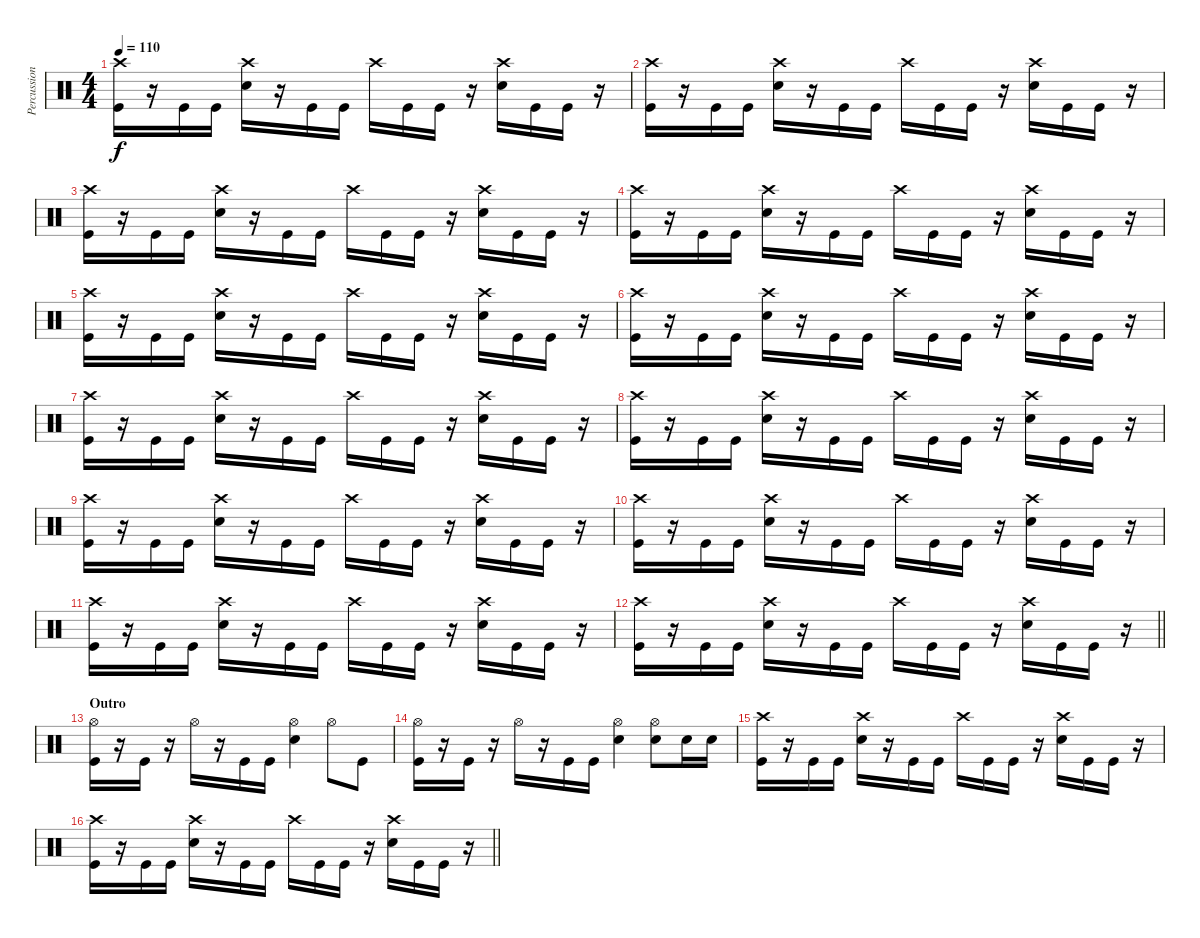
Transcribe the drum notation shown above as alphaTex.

\track ("Percussion" "Percussion") {instrument percussion}
\staff {score}
\articulation defaults
\ts (4 4)
\tempo 110
\clef neutral
\ks c
("Crash high (hit)" "Kick (hit)").16{dy f} r.16 "Kick (hit)".16 "Kick (hit)".16 ("Crash high (hit)" "Snare (hit) 2").16 r.16 "Kick (hit)".16 "Kick (hit)".16 "Crash high (hit)".16 "Kick (hit)".16 "Kick (hit)".16 r.16 ("Crash high (hit)" "Snare (hit) 2").16 "Kick (hit)".16 "Kick (hit)".16 r.16 |
("Crash high (hit)" "Kick (hit)").16 r.16 "Kick (hit)".16 "Kick (hit)".16 ("Crash high (hit)" "Snare (hit) 2").16 r.16 "Kick (hit)".16 "Kick (hit)".16 "Crash high (hit)".16 "Kick (hit)".16 "Kick (hit)".16 r.16 ("Crash high (hit)" "Snare (hit) 2").16 "Kick (hit)".16 "Kick (hit)".16 r.16 |
("Crash high (hit)" "Kick (hit)").16 r.16 "Kick (hit)".16 "Kick (hit)".16 ("Crash high (hit)" "Snare (hit) 2").16 r.16 "Kick (hit)".16 "Kick (hit)".16 "Crash high (hit)".16 "Kick (hit)".16 "Kick (hit)".16 r.16 ("Crash high (hit)" "Snare (hit) 2").16 "Kick (hit)".16 "Kick (hit)".16 r.16 |
("Crash high (hit)" "Kick (hit)").16 r.16 "Kick (hit)".16 "Kick (hit)".16 ("Crash high (hit)" "Snare (hit) 2").16 r.16 "Kick (hit)".16 "Kick (hit)".16 "Crash high (hit)".16 "Kick (hit)".16 "Kick (hit)".16 r.16 ("Crash high (hit)" "Snare (hit) 2").16 "Kick (hit)".16 "Kick (hit)".16 r.16 |
("Crash high (hit)" "Kick (hit)").16 r.16 "Kick (hit)".16 "Kick (hit)".16 ("Crash high (hit)" "Snare (hit) 2").16 r.16 "Kick (hit)".16 "Kick (hit)".16 "Crash high (hit)".16 "Kick (hit)".16 "Kick (hit)".16 r.16 ("Crash high (hit)" "Snare (hit) 2").16 "Kick (hit)".16 "Kick (hit)".16 r.16 |
("Crash high (hit)" "Kick (hit)").16 r.16 "Kick (hit)".16 "Kick (hit)".16 ("Crash high (hit)" "Snare (hit) 2").16 r.16 "Kick (hit)".16 "Kick (hit)".16 "Crash high (hit)".16 "Kick (hit)".16 "Kick (hit)".16 r.16 ("Crash high (hit)" "Snare (hit) 2").16 "Kick (hit)".16 "Kick (hit)".16 r.16 |
("Crash high (hit)" "Kick (hit)").16 r.16 "Kick (hit)".16 "Kick (hit)".16 ("Crash high (hit)" "Snare (hit) 2").16 r.16 "Kick (hit)".16 "Kick (hit)".16 "Crash high (hit)".16 "Kick (hit)".16 "Kick (hit)".16 r.16 ("Crash high (hit)" "Snare (hit) 2").16 "Kick (hit)".16 "Kick (hit)".16 r.16 |
("Crash high (hit)" "Kick (hit)").16 r.16 "Kick (hit)".16 "Kick (hit)".16 ("Crash high (hit)" "Snare (hit) 2").16 r.16 "Kick (hit)".16 "Kick (hit)".16 "Crash high (hit)".16 "Kick (hit)".16 "Kick (hit)".16 r.16 ("Crash high (hit)" "Snare (hit) 2").16 "Kick (hit)".16 "Kick (hit)".16 r.16 |
("Crash high (hit)" "Kick (hit)").16 r.16 "Kick (hit)".16 "Kick (hit)".16 ("Crash high (hit)" "Snare (hit) 2").16 r.16 "Kick (hit)".16 "Kick (hit)".16 "Crash high (hit)".16 "Kick (hit)".16 "Kick (hit)".16 r.16 ("Crash high (hit)" "Snare (hit) 2").16 "Kick (hit)".16 "Kick (hit)".16 r.16 |
("Crash high (hit)" "Kick (hit)").16 r.16 "Kick (hit)".16 "Kick (hit)".16 ("Crash high (hit)" "Snare (hit) 2").16 r.16 "Kick (hit)".16 "Kick (hit)".16 "Crash high (hit)".16 "Kick (hit)".16 "Kick (hit)".16 r.16 ("Crash high (hit)" "Snare (hit) 2").16 "Kick (hit)".16 "Kick (hit)".16 r.16 |
("Crash high (hit)" "Kick (hit)").16 r.16 "Kick (hit)".16 "Kick (hit)".16 ("Crash high (hit)" "Snare (hit) 2").16 r.16 "Kick (hit)".16 "Kick (hit)".16 "Crash high (hit)".16 "Kick (hit)".16 "Kick (hit)".16 r.16 ("Crash high (hit)" "Snare (hit) 2").16 "Kick (hit)".16 "Kick (hit)".16 r.16 |
\barLineRight lightlight
("Crash high (hit)" "Kick (hit)").16 r.16 "Kick (hit)".16 "Kick (hit)".16 ("Crash high (hit)" "Snare (hit) 2").16 r.16 "Kick (hit)".16 "Kick (hit)".16 "Crash high (hit)".16 "Kick (hit)".16 "Kick (hit)".16 r.16 ("Crash high (hit)" "Snare (hit) 2").16 "Kick (hit)".16 "Kick (hit)".16 r.16 |
\section ("" "Outro")
("Hi-Hat (open)" "Kick (hit)").16 r.16 "Kick (hit)".16 r.16 "Hi-Hat (open)".16 r.16 "Kick (hit)".16 "Kick (hit)".16 ("Hi-Hat (open)" "Snare (hit) 2").4 "Hi-Hat (open)".8 "Kick (hit)".8 |
("Hi-Hat (open)" "Kick (hit)").16 r.16 "Kick (hit)".16 r.16 "Hi-Hat (open)".16 r.16 "Kick (hit)".16 "Kick (hit)".16 ("Hi-Hat (open)" "Snare (hit) 2").4 ("Hi-Hat (open)" "Snare (hit) 2").8 "Snare (hit) 2".16 "Snare (hit) 2".16 |
("Crash high (hit)" "Kick (hit)").16 r.16 "Kick (hit)".16 "Kick (hit)".16 ("Crash high (hit)" "Snare (hit) 2").16 r.16 "Kick (hit)".16 "Kick (hit)".16 "Crash high (hit)".16 "Kick (hit)".16 "Kick (hit)".16 r.16 ("Crash high (hit)" "Snare (hit) 2").16 "Kick (hit)".16 "Kick (hit)".16 r.16 |
\barLineRight lightlight
("Crash high (hit)" "Kick (hit)").16 r.16 "Kick (hit)".16 "Kick (hit)".16 ("Crash high (hit)" "Snare (hit) 2").16 r.16 "Kick (hit)".16 "Kick (hit)".16 "Crash high (hit)".16 "Kick (hit)".16 "Kick (hit)".16 r.16 ("Crash high (hit)" "Snare (hit) 2").16 "Kick (hit)".16 "Kick (hit)".16 r.16
